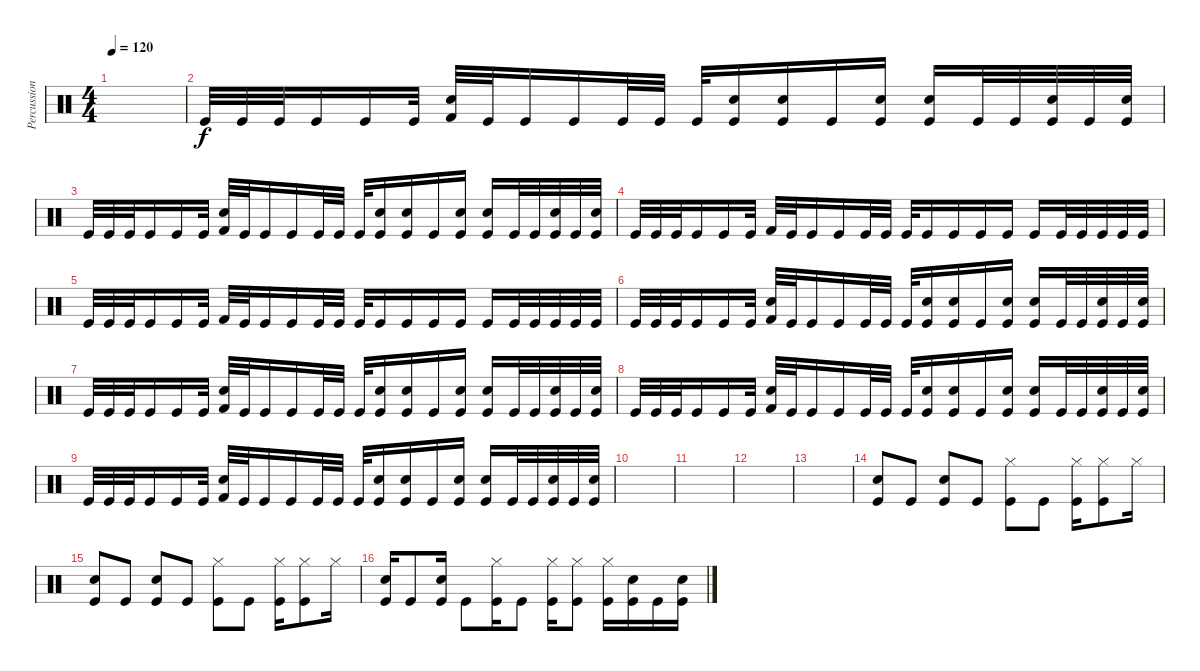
\track ("Percussion" "Percussion") {instrument percussion}
\staff {score}
\articulation defaults
\ts (4 4)
\tempo 120
\clef neutral
\ks c
|
"Kick (hit)".32 "Kick (hit)".32 "Kick (hit)".32 "Kick (hit)".16 "Kick (hit)".16 "Kick (hit)".32 ("Snare (hit) 2" "Kick (hit) 2").32 "Kick (hit)".32 "Kick (hit)".16 "Kick (hit)".16 "Kick (hit)".32 "Kick (hit)".32 "Kick (hit)".32 ("Snare (hit) 2" "Kick (hit)").16 ("Snare (hit) 2" "Kick (hit)").16 "Kick (hit)".16 ("Snare (hit) 2" "Kick (hit)").16 ("Snare (hit) 2" "Kick (hit)").16 "Kick (hit)".32 "Kick (hit)".32 ("Snare (hit) 2" "Kick (hit)").32 "Kick (hit)".32 ("Snare (hit) 2" "Kick (hit)").32 |
"Kick (hit)".32 "Kick (hit)".32 "Kick (hit)".32 "Kick (hit)".16 "Kick (hit)".16 "Kick (hit)".32 ("Snare (hit) 2" "Kick (hit) 2").32 "Kick (hit)".32 "Kick (hit)".16 "Kick (hit)".16 "Kick (hit)".32 "Kick (hit)".32 "Kick (hit)".32 ("Snare (hit) 2" "Kick (hit)").16 ("Snare (hit) 2" "Kick (hit)").16 "Kick (hit)".16 ("Snare (hit) 2" "Kick (hit)").16 ("Snare (hit) 2" "Kick (hit)").16 "Kick (hit)".32 "Kick (hit)".32 ("Snare (hit) 2" "Kick (hit)").32 "Kick (hit)".32 ("Snare (hit) 2" "Kick (hit)").32 |
"Kick (hit)".32 "Kick (hit)".32 "Kick (hit)".32 "Kick (hit)".16 "Kick (hit)".16 "Kick (hit)".32 "Kick (hit) 2".32 "Kick (hit)".32 "Kick (hit)".16 "Kick (hit)".16 "Kick (hit)".32 "Kick (hit)".32 "Kick (hit)".32 "Kick (hit)".16 "Kick (hit)".16 "Kick (hit)".16 "Kick (hit)".16 "Kick (hit)".16 "Kick (hit)".32 "Kick (hit)".32 "Kick (hit)".32 "Kick (hit)".32 "Kick (hit)".32 |
"Kick (hit)".32 "Kick (hit)".32 "Kick (hit)".32 "Kick (hit)".16 "Kick (hit)".16 "Kick (hit)".32 "Kick (hit) 2".32 "Kick (hit)".32 "Kick (hit)".16 "Kick (hit)".16 "Kick (hit)".32 "Kick (hit)".32 "Kick (hit)".32 "Kick (hit)".16 "Kick (hit)".16 "Kick (hit)".16 "Kick (hit)".16 "Kick (hit)".16 "Kick (hit)".32 "Kick (hit)".32 "Kick (hit)".32 "Kick (hit)".32 "Kick (hit)".32 |
"Kick (hit)".32 "Kick (hit)".32 "Kick (hit)".32 "Kick (hit)".16 "Kick (hit)".16 "Kick (hit)".32 ("Snare (hit) 2" "Kick (hit) 2").32 "Kick (hit)".32 "Kick (hit)".16 "Kick (hit)".16 "Kick (hit)".32 "Kick (hit)".32 "Kick (hit)".32 ("Snare (hit) 2" "Kick (hit)").16 ("Snare (hit) 2" "Kick (hit)").16 "Kick (hit)".16 ("Snare (hit) 2" "Kick (hit)").16 ("Snare (hit) 2" "Kick (hit)").16 "Kick (hit)".32 "Kick (hit)".32 ("Snare (hit) 2" "Kick (hit)").32 "Kick (hit)".32 ("Snare (hit) 2" "Kick (hit)").32 |
"Kick (hit)".32 "Kick (hit)".32 "Kick (hit)".32 "Kick (hit)".16 "Kick (hit)".16 "Kick (hit)".32 ("Snare (hit) 2" "Kick (hit) 2").32 "Kick (hit)".32 "Kick (hit)".16 "Kick (hit)".16 "Kick (hit)".32 "Kick (hit)".32 "Kick (hit)".32 ("Snare (hit) 2" "Kick (hit)").16 ("Snare (hit) 2" "Kick (hit)").16 "Kick (hit)".16 ("Snare (hit) 2" "Kick (hit)").16 ("Snare (hit) 2" "Kick (hit)").16 "Kick (hit)".32 "Kick (hit)".32 ("Snare (hit) 2" "Kick (hit)").32 "Kick (hit)".32 ("Snare (hit) 2" "Kick (hit)").32 |
"Kick (hit)".32 "Kick (hit)".32 "Kick (hit)".32 "Kick (hit)".16 "Kick (hit)".16 "Kick (hit)".32 ("Snare (hit) 2" "Kick (hit) 2").32 "Kick (hit)".32 "Kick (hit)".16 "Kick (hit)".16 "Kick (hit)".32 "Kick (hit)".32 "Kick (hit)".32 ("Snare (hit) 2" "Kick (hit)").16 ("Snare (hit) 2" "Kick (hit)").16 "Kick (hit)".16 ("Snare (hit) 2" "Kick (hit)").16 ("Snare (hit) 2" "Kick (hit)").16 "Kick (hit)".32 "Kick (hit)".32 ("Snare (hit) 2" "Kick (hit)").32 "Kick (hit)".32 ("Snare (hit) 2" "Kick (hit)").32 |
"Kick (hit)".32 "Kick (hit)".32 "Kick (hit)".32 "Kick (hit)".16 "Kick (hit)".16 "Kick (hit)".32 ("Snare (hit) 2" "Kick (hit) 2").32 "Kick (hit)".32 "Kick (hit)".16 "Kick (hit)".16 "Kick (hit)".32 "Kick (hit)".32 "Kick (hit)".32 ("Snare (hit) 2" "Kick (hit)").16 ("Snare (hit) 2" "Kick (hit)").16 "Kick (hit)".16 ("Snare (hit) 2" "Kick (hit)").16 ("Snare (hit) 2" "Kick (hit)").16 "Kick (hit)".32 "Kick (hit)".32 ("Snare (hit) 2" "Kick (hit)").32 "Kick (hit)".32 ("Snare (hit) 2" "Kick (hit)").32 |
|
|
|
|
("Kick (hit)" "Snare (hit) 2").8 "Kick (hit)".8 ("Kick (hit)" "Snare (hit) 2").8 "Kick (hit)".8 ("Kick (hit)" "Hi-Hat (closed)").8 "Kick (hit)".8 ("Kick (hit)" "Hi-Hat (closed)").16 ("Kick (hit)" "Hi-Hat (closed)").8 "Hi-Hat (closed)".16 |
("Kick (hit)" "Snare (hit) 2").8 "Kick (hit)".8 ("Kick (hit)" "Snare (hit) 2").8 "Kick (hit)".8 ("Kick (hit)" "Hi-Hat (closed)").8 "Kick (hit)".8 ("Kick (hit)" "Hi-Hat (closed)").16 ("Kick (hit)" "Hi-Hat (closed)").8 "Hi-Hat (closed)".16 |
("Kick (hit)" "Snare (hit) 2").16 "Kick (hit)".8 ("Kick (hit)" "Snare (hit) 2").16 "Kick (hit)".8 ("Kick (hit)" "Hi-Hat (closed)").16 "Kick (hit)".8 ("Kick (hit)" "Hi-Hat (closed)").16 ("Kick (hit)" "Hi-Hat (closed)").8 ("Kick (hit)" "Hi-Hat (closed)").16 ("Kick (hit)" "Snare (hit) 2").16 "Kick (hit)".16 ("Kick (hit)" "Snare (hit) 2").16
